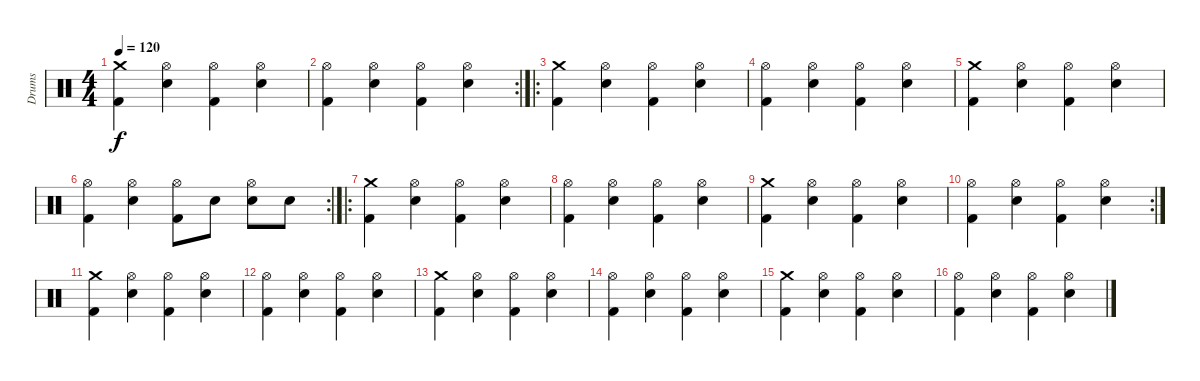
\track ("Drums" "Drums") {instrument percussion}
\staff {score}
\articulation defaults
\ts (4 4)
\tempo 120
\clef neutral
\ks c
("Crash medium (hit)" "Kick (hit) 2").4{dy f} ("Hi-Hat (open)" "Snare (hit) 2").4 ("Hi-Hat (open)" "Kick (hit) 2").4 ("Hi-Hat (open)" "Snare (hit) 2").4 |
\rc 2
("Hi-Hat (open)" "Kick (hit) 2").4 ("Hi-Hat (open)" "Snare (hit) 2").4 ("Hi-Hat (open)" "Kick (hit) 2").4 ("Hi-Hat (open)" "Snare (hit) 2").4 |
\ro
("Crash medium (hit)" "Kick (hit) 2").4 ("Hi-Hat (open)" "Snare (hit) 2").4 ("Hi-Hat (open)" "Kick (hit) 2").4 ("Hi-Hat (open)" "Snare (hit) 2").4 |
("Hi-Hat (open)" "Kick (hit) 2").4 ("Hi-Hat (open)" "Snare (hit) 2").4 ("Hi-Hat (open)" "Kick (hit) 2").4 ("Hi-Hat (open)" "Snare (hit) 2").4 |
("Crash medium (hit)" "Kick (hit) 2").4 ("Hi-Hat (open)" "Snare (hit) 2").4 ("Hi-Hat (open)" "Kick (hit) 2").4 ("Hi-Hat (open)" "Snare (hit) 2").4 |
\rc 2
("Hi-Hat (open)" "Kick (hit) 2").4 ("Hi-Hat (open)" "Snare (hit) 2").4 ("Hi-Hat (open)" "Kick (hit) 2").8 "Snare (hit) 2".8 ("Hi-Hat (open)" "Snare (hit) 2").8 "Snare (hit) 2".8 |
\ro
("Crash medium (hit)" "Kick (hit) 2").4 ("Hi-Hat (open)" "Snare (hit) 2").4 ("Hi-Hat (open)" "Kick (hit) 2").4 ("Hi-Hat (open)" "Snare (hit) 2").4 |
("Hi-Hat (open)" "Kick (hit) 2").4 ("Hi-Hat (open)" "Snare (hit) 2").4 ("Hi-Hat (open)" "Kick (hit) 2").4 ("Hi-Hat (open)" "Snare (hit) 2").4 |
("Crash medium (hit)" "Kick (hit) 2").4 ("Hi-Hat (open)" "Snare (hit) 2").4 ("Hi-Hat (open)" "Kick (hit) 2").4 ("Hi-Hat (open)" "Snare (hit) 2").4 |
\rc 2
("Hi-Hat (open)" "Kick (hit) 2").4 ("Hi-Hat (open)" "Snare (hit) 2").4 ("Hi-Hat (open)" "Kick (hit) 2").4 ("Hi-Hat (open)" "Snare (hit) 2").4 |
("Crash medium (hit)" "Kick (hit) 2").4 ("Hi-Hat (open)" "Snare (hit) 2").4 ("Hi-Hat (open)" "Kick (hit) 2").4 ("Hi-Hat (open)" "Snare (hit) 2").4 |
("Hi-Hat (open)" "Kick (hit) 2").4 ("Hi-Hat (open)" "Snare (hit) 2").4 ("Hi-Hat (open)" "Kick (hit) 2").4 ("Hi-Hat (open)" "Snare (hit) 2").4 |
("Crash medium (hit)" "Kick (hit) 2").4 ("Hi-Hat (open)" "Snare (hit) 2").4 ("Hi-Hat (open)" "Kick (hit) 2").4 ("Hi-Hat (open)" "Snare (hit) 2").4 |
("Hi-Hat (open)" "Kick (hit) 2").4 ("Hi-Hat (open)" "Snare (hit) 2").4 ("Hi-Hat (open)" "Kick (hit) 2").4 ("Hi-Hat (open)" "Snare (hit) 2").4 |
("Crash medium (hit)" "Kick (hit) 2").4 ("Hi-Hat (open)" "Snare (hit) 2").4 ("Hi-Hat (open)" "Kick (hit) 2").4 ("Hi-Hat (open)" "Snare (hit) 2").4 |
("Hi-Hat (open)" "Kick (hit) 2").4 ("Hi-Hat (open)" "Snare (hit) 2").4 ("Hi-Hat (open)" "Kick (hit) 2").4 ("Hi-Hat (open)" "Snare (hit) 2").4
